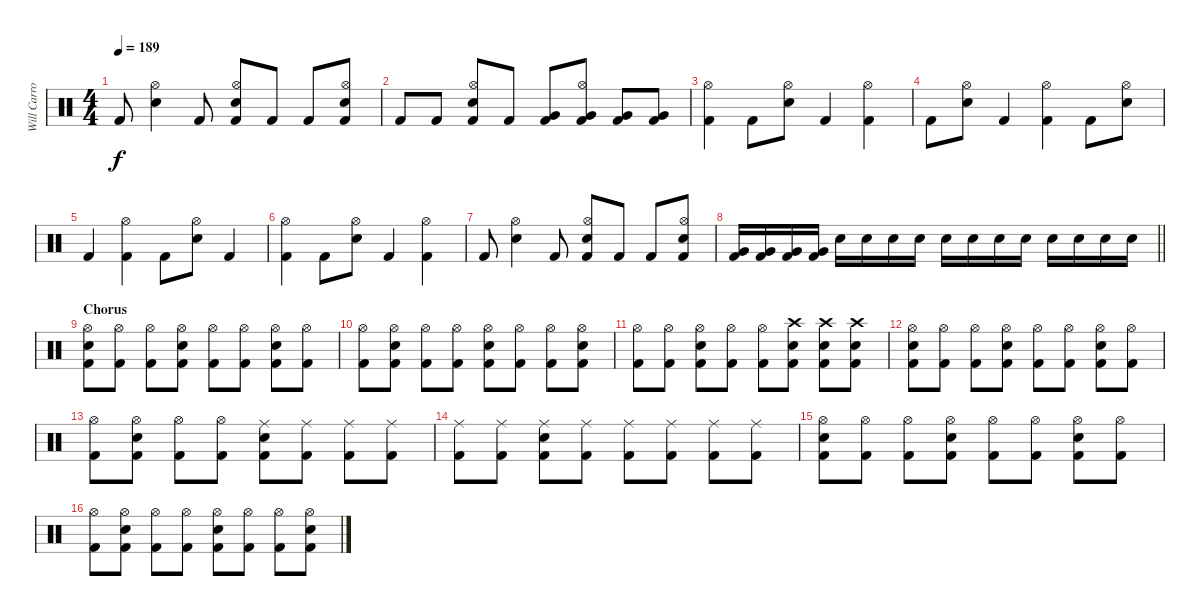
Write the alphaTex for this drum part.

\track ("Will Carroll" "Will Carro") {instrument percussion}
\staff {score}
\articulation defaults
\ts (4 4)
\tempo 189
\clef neutral
\ks c "Kick (hit) 2".8{dy f}
("Hi-Hat (open)" "Electric Snare (hit)").4 "Kick (hit) 2".8 ("Hi-Hat (open)" "Electric Snare (hit)" "Kick (hit) 2").8 "Kick (hit) 2".8 "Kick (hit) 2".8 ("Hi-Hat (open)" "Electric Snare (hit)" "Kick (hit) 2").8 |
"Kick (hit) 2".8 "Kick (hit) 2".8 ("Hi-Hat (open)" "Electric Snare (hit)" "Kick (hit) 2").8 "Kick (hit) 2".8 ("Very Low Tom (hit)" "Kick (hit) 2").8 ("Hi-Hat (open)" "Very Low Tom (hit)" "Kick (hit) 2").8 ("Very Low Tom (hit)" "Kick (hit) 2").8 ("Very Low Tom (hit)" "Kick (hit) 2").8 |
("Hi-Hat (open)" "Kick (hit) 2").4 "Kick (hit) 2".8 ("Hi-Hat (open)" "Electric Snare (hit)").8 "Kick (hit) 2".4 ("Hi-Hat (open)" "Kick (hit) 2").4 |
"Kick (hit) 2".8 ("Hi-Hat (open)" "Electric Snare (hit)").8 "Kick (hit) 2".4 ("Hi-Hat (open)" "Kick (hit) 2").4 "Kick (hit) 2".8 ("Hi-Hat (open)" "Electric Snare (hit)").8 |
"Kick (hit) 2".4 ("Hi-Hat (open)" "Kick (hit) 2").4 "Kick (hit) 2".8 ("Hi-Hat (open)" "Electric Snare (hit)").8 "Kick (hit) 2".4 |
("Hi-Hat (open)" "Kick (hit) 2").4 "Kick (hit) 2".8 ("Hi-Hat (open)" "Electric Snare (hit)").8 "Kick (hit) 2".4 ("Hi-Hat (open)" "Kick (hit) 2").4 |
"Kick (hit) 2".8 ("Hi-Hat (open)" "Electric Snare (hit)").4 "Kick (hit) 2".8 ("Hi-Hat (open)" "Electric Snare (hit)" "Kick (hit) 2").8 "Kick (hit) 2".8 "Kick (hit) 2".8 ("Hi-Hat (open)" "Electric Snare (hit)" "Kick (hit) 2").8 |
\barLineRight lightlight
("Very Low Tom (hit)" "Kick (hit) 2").16 ("Very Low Tom (hit)" "Kick (hit) 2").16 ("Very Low Tom (hit)" "Kick (hit) 2").16 ("Very Low Tom (hit)" "Kick (hit) 2").16 "Electric Snare (hit)".16 "Electric Snare (hit)".16 "Electric Snare (hit)".16 "Electric Snare (hit)".16 "Electric Snare (hit)".16 "Electric Snare (hit)".16 "Electric Snare (hit)".16 "Electric Snare (hit)".16 "Electric Snare (hit)".16 "Electric Snare (hit)".16 "Electric Snare (hit)".16 "Electric Snare (hit)".16 |
\section ("" "Chorus")
("Hi-Hat (open)" "Electric Snare (hit)" "Kick (hit) 2").8 ("Hi-Hat (open)" "Kick (hit) 2").8 ("Hi-Hat (open)" "Kick (hit) 2").8 ("Hi-Hat (open)" "Electric Snare (hit)" "Kick (hit) 2").8 ("Hi-Hat (open)" "Kick (hit) 2").8 ("Hi-Hat (open)" "Kick (hit) 2").8 ("Hi-Hat (open)" "Electric Snare (hit)" "Kick (hit) 2").8 ("Hi-Hat (open)" "Kick (hit) 2").8 |
("Hi-Hat (open)" "Kick (hit) 2").8 ("Hi-Hat (open)" "Electric Snare (hit)" "Kick (hit) 2").8 ("Hi-Hat (open)" "Kick (hit) 2").8 ("Hi-Hat (open)" "Kick (hit) 2").8 ("Hi-Hat (open)" "Electric Snare (hit)" "Kick (hit) 2").8 ("Hi-Hat (open)" "Kick (hit) 2").8 ("Hi-Hat (open)" "Kick (hit) 2").8 ("Hi-Hat (open)" "Electric Snare (hit)" "Kick (hit) 2").8 |
("Hi-Hat (open)" "Kick (hit) 2").8 ("Hi-Hat (open)" "Kick (hit) 2").8 ("Hi-Hat (open)" "Electric Snare (hit)" "Kick (hit) 2").8 ("Hi-Hat (open)" "Kick (hit) 2").8 ("Hi-Hat (open)" "Kick (hit) 2").8 ("Crash high (hit)" "Electric Snare (hit)" "Kick (hit) 2").8 ("Crash high (hit)" "Electric Snare (hit)" "Kick (hit) 2").8 ("Crash high (hit)" "Electric Snare (hit)" "Kick (hit) 2").8 |
("Hi-Hat (open)" "Electric Snare (hit)" "Kick (hit) 2").8 ("Hi-Hat (open)" "Kick (hit) 2").8 ("Hi-Hat (open)" "Kick (hit) 2").8 ("Hi-Hat (open)" "Electric Snare (hit)" "Kick (hit) 2").8 ("Hi-Hat (open)" "Kick (hit) 2").8 ("Hi-Hat (open)" "Kick (hit) 2").8 ("Hi-Hat (open)" "Electric Snare (hit)" "Kick (hit) 2").8 ("Hi-Hat (open)" "Kick (hit) 2").8 |
("Hi-Hat (open)" "Kick (hit) 2").8 ("Hi-Hat (open)" "Electric Snare (hit)" "Kick (hit) 2").8 ("Hi-Hat (open)" "Kick (hit) 2").8 ("Hi-Hat (open)" "Kick (hit) 2").8 ("Ride (middle)" "Electric Snare (hit)" "Kick (hit) 2").8 ("Ride (middle)" "Kick (hit) 2").8 ("Ride (middle)" "Kick (hit) 2").8 ("Ride (middle)" "Kick (hit) 2").8 |
("Ride (middle)" "Kick (hit) 2").8 ("Ride (middle)" "Kick (hit) 2").8 ("Ride (middle)" "Electric Snare (hit)" "Kick (hit) 2").8 ("Ride (middle)" "Kick (hit) 2").8 ("Ride (middle)" "Kick (hit) 2").8 ("Ride (middle)" "Kick (hit) 2").8 ("Ride (middle)" "Kick (hit) 2").8 ("Ride (middle)" "Kick (hit) 2").8 |
("Hi-Hat (open)" "Electric Snare (hit)" "Kick (hit) 2").8 ("Hi-Hat (open)" "Kick (hit) 2").8 ("Hi-Hat (open)" "Kick (hit) 2").8 ("Hi-Hat (open)" "Electric Snare (hit)" "Kick (hit) 2").8 ("Hi-Hat (open)" "Kick (hit) 2").8 ("Hi-Hat (open)" "Kick (hit) 2").8 ("Hi-Hat (open)" "Electric Snare (hit)" "Kick (hit) 2").8 ("Hi-Hat (open)" "Kick (hit) 2").8 |
("Hi-Hat (open)" "Kick (hit) 2").8 ("Hi-Hat (open)" "Electric Snare (hit)" "Kick (hit) 2").8 ("Hi-Hat (open)" "Kick (hit) 2").8 ("Hi-Hat (open)" "Kick (hit) 2").8 ("Hi-Hat (open)" "Electric Snare (hit)" "Kick (hit) 2").8 ("Hi-Hat (open)" "Kick (hit) 2").8 ("Hi-Hat (open)" "Kick (hit) 2").8 ("Hi-Hat (open)" "Electric Snare (hit)" "Kick (hit) 2").8
